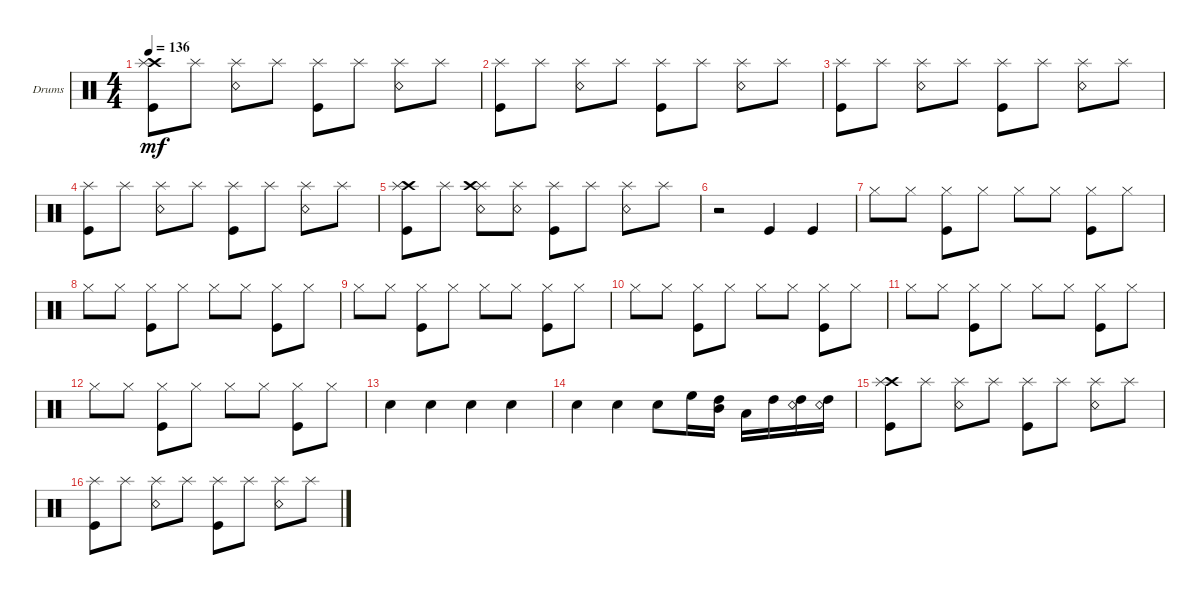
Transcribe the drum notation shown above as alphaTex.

\defaultSystemsLayout 4
\bracketExtendMode groupsimilarinstruments
\firstSystemTrackNameOrientation horizontal
\otherSystemsTrackNameOrientation horizontal
\track ("Нюта" "Drums") {instrument percussion}
\staff {score}
\articulation defaults
\ts (4 4)
\tempo 136
\clef neutral
\ks c
("Crash high (hit)" "Kick (hit)" "Splash (hit)").8{dy mf} "Splash (hit)".8 ("Snare (rim shot)" "Splash (hit)").8 "Splash (hit)".8 ("Kick (hit)" "Splash (hit)").8 "Splash (hit)".8 ("Snare (rim shot)" "Splash (hit)").8 "Splash (hit)".8 |
("Kick (hit)" "Splash (hit)").8 "Splash (hit)".8 ("Snare (rim shot)" "Splash (hit)").8 "Splash (hit)".8 ("Kick (hit)" "Splash (hit)").8 "Splash (hit)".8 ("Snare (rim shot)" "Splash (hit)").8 "Splash (hit)".8 |
("Kick (hit)" "Splash (hit)").8 "Splash (hit)".8 ("Snare (rim shot)" "Splash (hit)").8 "Splash (hit)".8 ("Kick (hit)" "Splash (hit)").8 "Splash (hit)".8 ("Snare (rim shot)" "Splash (hit)").8 "Splash (hit)".8 |
("Kick (hit)" "Splash (hit)").8 "Splash (hit)".8 ("Snare (rim shot)" "Splash (hit)").8 "Splash (hit)".8 ("Kick (hit)" "Splash (hit)").8 "Splash (hit)".8 ("Snare (rim shot)" "Splash (hit)").8 "Splash (hit)".8 |
("Crash high (hit)" "Kick (hit)" "Splash (hit)").8 "Splash (hit)".8 ("Snare (rim shot)" "Splash (hit)" "Crash high (hit)").8 ("Splash (hit)" "Snare (rim shot)").8 ("Kick (hit)" "Splash (hit)").8 "Splash (hit)".8 ("Snare (rim shot)" "Splash (hit)").8 "Splash (hit)".8 |
r.2 "Kick (hit)".4 "Kick (hit)".4 |
"Hi-Hat (closed)".8 "Hi-Hat (closed)".8 ("Hi-Hat (closed)" "Kick (hit)").8 "Hi-Hat (closed)".8 "Hi-Hat (closed)".8 "Hi-Hat (closed)".8 ("Hi-Hat (closed)" "Kick (hit)").8 "Hi-Hat (closed)".8 |
"Hi-Hat (closed)".8 "Hi-Hat (closed)".8 ("Hi-Hat (closed)" "Kick (hit)").8 "Hi-Hat (closed)".8 "Hi-Hat (closed)".8 "Hi-Hat (closed)".8 ("Hi-Hat (closed)" "Kick (hit)").8 "Hi-Hat (closed)".8 |
"Hi-Hat (closed)".8 "Hi-Hat (closed)".8 ("Hi-Hat (closed)" "Kick (hit)").8 "Hi-Hat (closed)".8 "Hi-Hat (closed)".8 "Hi-Hat (closed)".8 ("Hi-Hat (closed)" "Kick (hit)").8 "Hi-Hat (closed)".8 |
"Hi-Hat (closed)".8 "Hi-Hat (closed)".8 ("Hi-Hat (closed)" "Kick (hit)").8 "Hi-Hat (closed)".8 "Hi-Hat (closed)".8 "Hi-Hat (closed)".8 ("Hi-Hat (closed)" "Kick (hit)").8 "Hi-Hat (closed)".8 |
"Hi-Hat (closed)".8 "Hi-Hat (closed)".8 ("Hi-Hat (closed)" "Kick (hit)").8 "Hi-Hat (closed)".8 "Hi-Hat (closed)".8 "Hi-Hat (closed)".8 ("Hi-Hat (closed)" "Kick (hit)").8 "Hi-Hat (closed)".8 |
"Hi-Hat (closed)".8 "Hi-Hat (closed)".8 ("Hi-Hat (closed)" "Kick (hit)").8 "Hi-Hat (closed)".8 "Hi-Hat (closed)".8 "Hi-Hat (closed)".8 ("Hi-Hat (closed)" "Kick (hit)").8 "Hi-Hat (closed)".8 |
"Snare (hit) 2".4 "Snare (hit) 2".4 "Snare (hit) 2".4 "Snare (hit) 2".4 |
"Snare (hit) 2".4 "Snare (hit) 2".4 "Snare (hit) 2".8 "High Floor Tom (hit)".16 ("High Tom (hit)" "Mid Tom (hit)").16 "Low Tom (hit)".16 "High Tom (hit)".16 ("High Tom (hit)" "Snare (rim shot)").16 ("High Tom (hit)" "Snare (rim shot)").16 |
("Crash high (hit)" "Kick (hit)" "Splash (hit)").8 "Splash (hit)".8 ("Snare (rim shot)" "Splash (hit)").8 "Splash (hit)".8 ("Kick (hit)" "Splash (hit)").8 "Splash (hit)".8 ("Snare (rim shot)" "Splash (hit)").8 "Splash (hit)".8 |
("Kick (hit)" "Splash (hit)").8 "Splash (hit)".8 ("Snare (rim shot)" "Splash (hit)").8 "Splash (hit)".8 ("Kick (hit)" "Splash (hit)").8 "Splash (hit)".8 ("Snare (rim shot)" "Splash (hit)").8 "Splash (hit)".8
